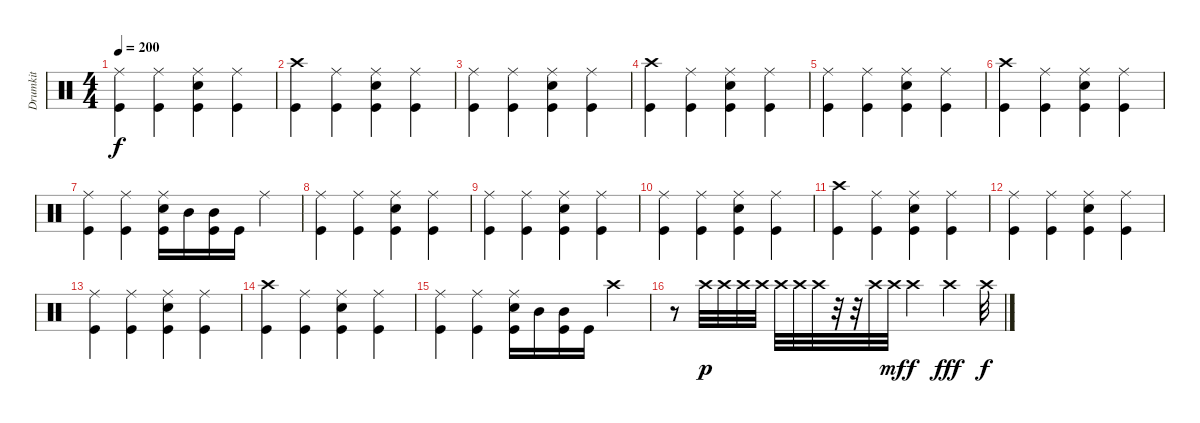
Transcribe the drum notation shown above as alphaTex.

\track ("Drumkit" "Drumkit") {instrument percussion}
\staff {score}
\articulation defaults
\ts (4 4)
\tempo 200
\clef neutral
\ks c
("Ride (middle)" "Kick (hit)").4{dy f} ("Ride (middle)" "Kick (hit)").4 ("Ride (middle)" "Snare (hit) 2" "Kick (hit)").4 ("Ride (middle)" "Kick (hit)").4 |
("Crash high (hit)" "Kick (hit)").4 ("Ride (middle)" "Kick (hit)").4 ("Ride (middle)" "Snare (hit) 2" "Kick (hit)").4 ("Ride (middle)" "Kick (hit)").4 |
("Ride (middle)" "Kick (hit)").4 ("Ride (middle)" "Kick (hit)").4 ("Ride (middle)" "Snare (hit) 2" "Kick (hit)").4 ("Ride (middle)" "Kick (hit)").4 |
("Crash high (hit)" "Kick (hit)").4 ("Ride (middle)" "Kick (hit)").4 ("Ride (middle)" "Snare (hit) 2" "Kick (hit)").4 ("Ride (middle)" "Kick (hit)").4 |
("Ride (middle)" "Kick (hit)").4 ("Ride (middle)" "Kick (hit)").4 ("Ride (middle)" "Snare (hit) 2" "Kick (hit)").4 ("Ride (middle)" "Kick (hit)").4 |
("Crash high (hit)" "Kick (hit)").4 ("Ride (middle)" "Kick (hit)").4 ("Ride (middle)" "Snare (hit) 2" "Kick (hit)").4 ("Ride (middle)" "Kick (hit)").4 |
("Ride (middle)" "Kick (hit)").4 ("Ride (middle)" "Kick (hit)").4 ("Ride (middle)" "Snare (hit) 2" "Kick (hit)").16 "Mid Tom (hit)".16 ("Mid Tom (hit)" "Kick (hit)").16 "Kick (hit)".16 "Ride (middle)".4 |
("Ride (middle)" "Kick (hit)").4 ("Ride (middle)" "Kick (hit)").4 ("Ride (middle)" "Snare (hit) 2" "Kick (hit)").4 ("Ride (middle)" "Kick (hit)").4 |
("Ride (middle)" "Kick (hit)").4 ("Ride (middle)" "Kick (hit)").4 ("Ride (middle)" "Snare (hit) 2" "Kick (hit)").4 ("Ride (middle)" "Kick (hit)").4 |
("Ride (middle)" "Kick (hit)").4 ("Ride (middle)" "Kick (hit)").4 ("Ride (middle)" "Snare (hit) 2" "Kick (hit)").4 ("Ride (middle)" "Kick (hit)").4 |
("Crash high (hit)" "Kick (hit)").4 ("Ride (middle)" "Kick (hit)").4 ("Ride (middle)" "Snare (hit) 2" "Kick (hit)").4 ("Ride (middle)" "Kick (hit)").4 |
("Ride (middle)" "Kick (hit)").4 ("Ride (middle)" "Kick (hit)").4 ("Ride (middle)" "Snare (hit) 2" "Kick (hit)").4 ("Ride (middle)" "Kick (hit)").4 |
("Ride (middle)" "Kick (hit)").4 ("Ride (middle)" "Kick (hit)").4 ("Ride (middle)" "Snare (hit) 2" "Kick (hit)").4 ("Ride (middle)" "Kick (hit)").4 |
("Crash high (hit)" "Kick (hit)").4 ("Ride (middle)" "Kick (hit)").4 ("Ride (middle)" "Snare (hit) 2" "Kick (hit)").4 ("Ride (middle)" "Kick (hit)").4 |
("Ride (middle)" "Kick (hit)").4 ("Ride (middle)" "Kick (hit)").4 ("Ride (middle)" "Snare (hit) 2" "Kick (hit)").16 "Mid Tom (hit)".16 ("Mid Tom (hit)" "Kick (hit)").16 "Kick (hit)".16 "Crash high (hit)".4 |
r.8 "Crash high (hit)".32{dy p} "Crash high (hit)".32 "Crash high (hit)".32 "Crash high (hit)".32 "Crash high (hit)".32 "Crash high (hit)".32 "Crash high (hit)".32 r.32 r.32 "Crash high (hit)".32 "Crash high (hit)".32{dy mf} "Crash high (hit)".4{dy f} "Crash high (hit)".4{dy fff} "Crash high (hit)".32{dy f}
